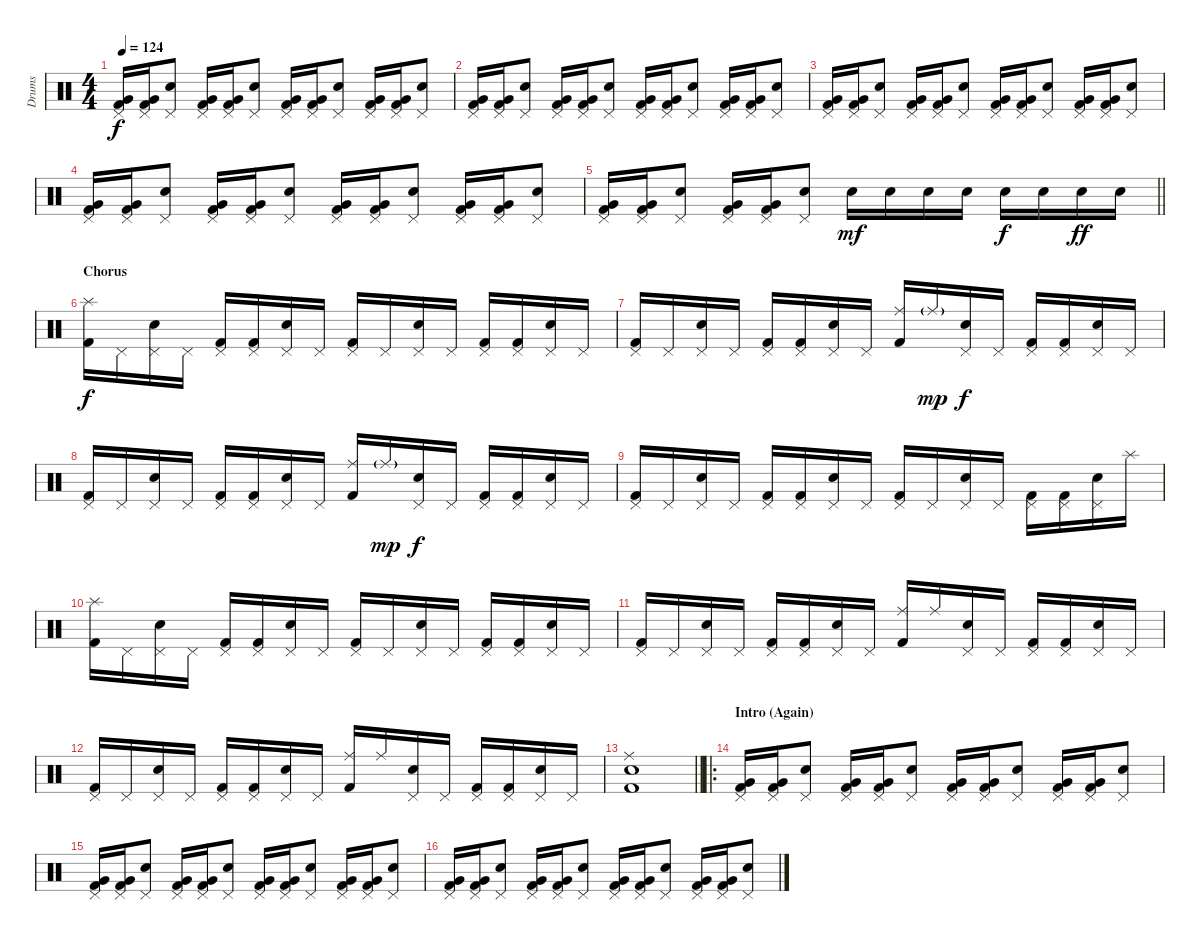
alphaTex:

\track ("Drums" "Drums") {instrument percussion}
\staff {score}
\articulation defaults
\ts (4 4)
\tempo 124
\clef neutral
\ks c
("Pedal Hi-Hat (hit)" "Very Low Tom (hit)" "Kick (hit) 2").16{dy f} ("Pedal Hi-Hat (hit)" "Very Low Tom (hit)" "Kick (hit) 2").16 ("Pedal Hi-Hat (hit)" "Electric Snare (hit)").8 ("Pedal Hi-Hat (hit)" "Very Low Tom (hit)" "Kick (hit) 2").16 ("Pedal Hi-Hat (hit)" "Very Low Tom (hit)" "Kick (hit) 2").16 ("Pedal Hi-Hat (hit)" "Electric Snare (hit)").8 ("Pedal Hi-Hat (hit)" "Very Low Tom (hit)" "Kick (hit) 2").16 ("Pedal Hi-Hat (hit)" "Very Low Tom (hit)" "Kick (hit) 2").16 ("Pedal Hi-Hat (hit)" "Electric Snare (hit)").8 ("Pedal Hi-Hat (hit)" "Very Low Tom (hit)" "Kick (hit) 2").16 ("Pedal Hi-Hat (hit)" "Very Low Tom (hit)" "Kick (hit) 2").16 ("Pedal Hi-Hat (hit)" "Electric Snare (hit)").8 |
("Pedal Hi-Hat (hit)" "Very Low Tom (hit)" "Kick (hit) 2").16 ("Pedal Hi-Hat (hit)" "Very Low Tom (hit)" "Kick (hit) 2").16 ("Pedal Hi-Hat (hit)" "Electric Snare (hit)").8 ("Pedal Hi-Hat (hit)" "Very Low Tom (hit)" "Kick (hit) 2").16 ("Pedal Hi-Hat (hit)" "Very Low Tom (hit)" "Kick (hit) 2").16 ("Pedal Hi-Hat (hit)" "Electric Snare (hit)").8 ("Pedal Hi-Hat (hit)" "Very Low Tom (hit)" "Kick (hit) 2").16 ("Pedal Hi-Hat (hit)" "Very Low Tom (hit)" "Kick (hit) 2").16 ("Pedal Hi-Hat (hit)" "Electric Snare (hit)").8 ("Pedal Hi-Hat (hit)" "Very Low Tom (hit)" "Kick (hit) 2").16 ("Pedal Hi-Hat (hit)" "Very Low Tom (hit)" "Kick (hit) 2").16 ("Pedal Hi-Hat (hit)" "Electric Snare (hit)").8 |
("Pedal Hi-Hat (hit)" "Very Low Tom (hit)" "Kick (hit) 2").16 ("Pedal Hi-Hat (hit)" "Very Low Tom (hit)" "Kick (hit) 2").16 ("Pedal Hi-Hat (hit)" "Electric Snare (hit)").8 ("Pedal Hi-Hat (hit)" "Very Low Tom (hit)" "Kick (hit) 2").16 ("Pedal Hi-Hat (hit)" "Very Low Tom (hit)" "Kick (hit) 2").16 ("Pedal Hi-Hat (hit)" "Electric Snare (hit)").8 ("Pedal Hi-Hat (hit)" "Very Low Tom (hit)" "Kick (hit) 2").16 ("Pedal Hi-Hat (hit)" "Very Low Tom (hit)" "Kick (hit) 2").16 ("Pedal Hi-Hat (hit)" "Electric Snare (hit)").8 ("Pedal Hi-Hat (hit)" "Very Low Tom (hit)" "Kick (hit) 2").16 ("Pedal Hi-Hat (hit)" "Very Low Tom (hit)" "Kick (hit) 2").16 ("Pedal Hi-Hat (hit)" "Electric Snare (hit)").8 |
("Pedal Hi-Hat (hit)" "Very Low Tom (hit)" "Kick (hit) 2").16 ("Pedal Hi-Hat (hit)" "Very Low Tom (hit)" "Kick (hit) 2").16 ("Pedal Hi-Hat (hit)" "Electric Snare (hit)").8 ("Pedal Hi-Hat (hit)" "Very Low Tom (hit)" "Kick (hit) 2").16 ("Pedal Hi-Hat (hit)" "Very Low Tom (hit)" "Kick (hit) 2").16 ("Pedal Hi-Hat (hit)" "Electric Snare (hit)").8 ("Pedal Hi-Hat (hit)" "Very Low Tom (hit)" "Kick (hit) 2").16 ("Pedal Hi-Hat (hit)" "Very Low Tom (hit)" "Kick (hit) 2").16 ("Pedal Hi-Hat (hit)" "Electric Snare (hit)").8 ("Pedal Hi-Hat (hit)" "Very Low Tom (hit)" "Kick (hit) 2").16 ("Pedal Hi-Hat (hit)" "Very Low Tom (hit)" "Kick (hit) 2").16 ("Pedal Hi-Hat (hit)" "Electric Snare (hit)").8 |
\barLineRight lightlight
("Pedal Hi-Hat (hit)" "Very Low Tom (hit)" "Kick (hit) 2").16 ("Pedal Hi-Hat (hit)" "Very Low Tom (hit)" "Kick (hit) 2").16 ("Pedal Hi-Hat (hit)" "Electric Snare (hit)").8 ("Pedal Hi-Hat (hit)" "Very Low Tom (hit)" "Kick (hit) 2").16 ("Pedal Hi-Hat (hit)" "Very Low Tom (hit)" "Kick (hit) 2").16 ("Pedal Hi-Hat (hit)" "Electric Snare (hit)").8 "Electric Snare (hit)".16{dy mf} "Electric Snare (hit)".16 "Electric Snare (hit)".16 "Electric Snare (hit)".16 "Electric Snare (hit)".16{dy f} "Electric Snare (hit)".16 "Electric Snare (hit)".16{dy ff} "Electric Snare (hit)".16 |
\section ("" "Chorus")
("Splash (hit)" "Kick (hit) 2").16{dy f} "Pedal Hi-Hat (hit)".16 ("Pedal Hi-Hat (hit)" "Electric Snare (hit)").16 "Pedal Hi-Hat (hit)".16 ("Pedal Hi-Hat (hit)" "Kick (hit) 2").16 ("Pedal Hi-Hat (hit)" "Kick (hit) 2").16 ("Pedal Hi-Hat (hit)" "Electric Snare (hit)").16 "Pedal Hi-Hat (hit)".16 ("Pedal Hi-Hat (hit)" "Kick (hit) 2").16 "Pedal Hi-Hat (hit)".16 ("Pedal Hi-Hat (hit)" "Electric Snare (hit)").16 "Pedal Hi-Hat (hit)".16 ("Pedal Hi-Hat (hit)" "Kick (hit) 2").16 ("Pedal Hi-Hat (hit)" "Kick (hit) 2").16 ("Pedal Hi-Hat (hit)" "Electric Snare (hit)").16 "Pedal Hi-Hat (hit)".16 |
("Pedal Hi-Hat (hit)" "Kick (hit) 2").16 "Pedal Hi-Hat (hit)".16 ("Pedal Hi-Hat (hit)" "Electric Snare (hit)").16 "Pedal Hi-Hat (hit)".16 ("Pedal Hi-Hat (hit)" "Kick (hit) 2").16 ("Pedal Hi-Hat (hit)" "Kick (hit) 2").16 ("Pedal Hi-Hat (hit)" "Electric Snare (hit)").16 "Pedal Hi-Hat (hit)".16 ("Ride (middle)" "Kick (hit) 2").16 "Ride (middle)"{g}.16{dy mp} ("Pedal Hi-Hat (hit)" "Electric Snare (hit)").16{dy f} "Pedal Hi-Hat (hit)".16 ("Pedal Hi-Hat (hit)" "Kick (hit) 2").16 ("Pedal Hi-Hat (hit)" "Kick (hit) 2").16 ("Pedal Hi-Hat (hit)" "Electric Snare (hit)").16 "Pedal Hi-Hat (hit)".16 |
("Pedal Hi-Hat (hit)" "Kick (hit) 2").16 "Pedal Hi-Hat (hit)".16 ("Pedal Hi-Hat (hit)" "Electric Snare (hit)").16 "Pedal Hi-Hat (hit)".16 ("Pedal Hi-Hat (hit)" "Kick (hit) 2").16 ("Pedal Hi-Hat (hit)" "Kick (hit) 2").16 ("Pedal Hi-Hat (hit)" "Electric Snare (hit)").16 "Pedal Hi-Hat (hit)".16 ("Ride (middle)" "Kick (hit) 2").16 "Ride (middle)"{g}.16{dy mp} ("Pedal Hi-Hat (hit)" "Electric Snare (hit)").16{dy f} "Pedal Hi-Hat (hit)".16 ("Pedal Hi-Hat (hit)" "Kick (hit) 2").16 ("Pedal Hi-Hat (hit)" "Kick (hit) 2").16 ("Pedal Hi-Hat (hit)" "Electric Snare (hit)").16 "Pedal Hi-Hat (hit)".16 |
("Pedal Hi-Hat (hit)" "Kick (hit) 2").16 "Pedal Hi-Hat (hit)".16 ("Pedal Hi-Hat (hit)" "Electric Snare (hit)").16 "Pedal Hi-Hat (hit)".16 ("Pedal Hi-Hat (hit)" "Kick (hit) 2").16 ("Pedal Hi-Hat (hit)" "Kick (hit) 2").16 ("Pedal Hi-Hat (hit)" "Electric Snare (hit)").16 "Pedal Hi-Hat (hit)".16 ("Pedal Hi-Hat (hit)" "Kick (hit) 2").16 "Pedal Hi-Hat (hit)".16 ("Pedal Hi-Hat (hit)" "Electric Snare (hit)").16 "Pedal Hi-Hat (hit)".16 ("Pedal Hi-Hat (hit)" "Kick (hit) 2").16 ("Pedal Hi-Hat (hit)" "Kick (hit) 2").16 ("Pedal Hi-Hat (hit)" "Electric Snare (hit)").16 "Splash (hit)".16 |
("Splash (hit)" "Kick (hit) 2").16 "Pedal Hi-Hat (hit)".16 ("Pedal Hi-Hat (hit)" "Electric Snare (hit)").16 "Pedal Hi-Hat (hit)".16 ("Pedal Hi-Hat (hit)" "Kick (hit) 2").16 ("Pedal Hi-Hat (hit)" "Kick (hit) 2").16 ("Pedal Hi-Hat (hit)" "Electric Snare (hit)").16 "Pedal Hi-Hat (hit)".16 ("Pedal Hi-Hat (hit)" "Kick (hit) 2").16 "Pedal Hi-Hat (hit)".16 ("Pedal Hi-Hat (hit)" "Electric Snare (hit)").16 "Pedal Hi-Hat (hit)".16 ("Pedal Hi-Hat (hit)" "Kick (hit) 2").16 ("Pedal Hi-Hat (hit)" "Kick (hit) 2").16 ("Pedal Hi-Hat (hit)" "Electric Snare (hit)").16 "Pedal Hi-Hat (hit)".16 |
("Pedal Hi-Hat (hit)" "Kick (hit) 2").16 "Pedal Hi-Hat (hit)".16 ("Pedal Hi-Hat (hit)" "Electric Snare (hit)").16 "Pedal Hi-Hat (hit)".16 ("Pedal Hi-Hat (hit)" "Kick (hit) 2").16 ("Pedal Hi-Hat (hit)" "Kick (hit) 2").16 ("Pedal Hi-Hat (hit)" "Electric Snare (hit)").16 "Pedal Hi-Hat (hit)".16 ("Ride (middle)" "Kick (hit) 2").16 "Ride (middle)".16 ("Pedal Hi-Hat (hit)" "Electric Snare (hit)").16 "Pedal Hi-Hat (hit)".16 ("Pedal Hi-Hat (hit)" "Kick (hit) 2").16 ("Pedal Hi-Hat (hit)" "Kick (hit) 2").16 ("Pedal Hi-Hat (hit)" "Electric Snare (hit)").16 "Pedal Hi-Hat (hit)".16 |
("Pedal Hi-Hat (hit)" "Kick (hit) 2").16 "Pedal Hi-Hat (hit)".16 ("Pedal Hi-Hat (hit)" "Electric Snare (hit)").16 "Pedal Hi-Hat (hit)".16 ("Pedal Hi-Hat (hit)" "Kick (hit) 2").16 ("Pedal Hi-Hat (hit)" "Kick (hit) 2").16 ("Pedal Hi-Hat (hit)" "Electric Snare (hit)").16 "Pedal Hi-Hat (hit)".16 ("Ride (middle)" "Kick (hit) 2").16 "Ride (middle)".16 ("Pedal Hi-Hat (hit)" "Electric Snare (hit)").16 "Pedal Hi-Hat (hit)".16 ("Pedal Hi-Hat (hit)" "Kick (hit) 2").16 ("Pedal Hi-Hat (hit)" "Kick (hit) 2").16 ("Pedal Hi-Hat (hit)" "Electric Snare (hit)").16 "Pedal Hi-Hat (hit)".16 |
\barLineRight lightlight
("Ride (middle)" "Electric Snare (hit)" "Kick (hit) 2").1 |
\ro
\section ("" "Intro (Again)")
("Pedal Hi-Hat (hit)" "Very Low Tom (hit)" "Kick (hit) 2").16 ("Pedal Hi-Hat (hit)" "Very Low Tom (hit)" "Kick (hit) 2").16 ("Pedal Hi-Hat (hit)" "Electric Snare (hit)").8 ("Pedal Hi-Hat (hit)" "Very Low Tom (hit)" "Kick (hit) 2").16 ("Pedal Hi-Hat (hit)" "Very Low Tom (hit)" "Kick (hit) 2").16 ("Pedal Hi-Hat (hit)" "Electric Snare (hit)").8 ("Pedal Hi-Hat (hit)" "Very Low Tom (hit)" "Kick (hit) 2").16 ("Pedal Hi-Hat (hit)" "Very Low Tom (hit)" "Kick (hit) 2").16 ("Pedal Hi-Hat (hit)" "Electric Snare (hit)").8 ("Pedal Hi-Hat (hit)" "Very Low Tom (hit)" "Kick (hit) 2").16 ("Pedal Hi-Hat (hit)" "Very Low Tom (hit)" "Kick (hit) 2").16 ("Pedal Hi-Hat (hit)" "Electric Snare (hit)").8 |
("Pedal Hi-Hat (hit)" "Very Low Tom (hit)" "Kick (hit) 2").16 ("Pedal Hi-Hat (hit)" "Very Low Tom (hit)" "Kick (hit) 2").16 ("Pedal Hi-Hat (hit)" "Electric Snare (hit)").8 ("Pedal Hi-Hat (hit)" "Very Low Tom (hit)" "Kick (hit) 2").16 ("Pedal Hi-Hat (hit)" "Very Low Tom (hit)" "Kick (hit) 2").16 ("Pedal Hi-Hat (hit)" "Electric Snare (hit)").8 ("Pedal Hi-Hat (hit)" "Very Low Tom (hit)" "Kick (hit) 2").16 ("Pedal Hi-Hat (hit)" "Very Low Tom (hit)" "Kick (hit) 2").16 ("Pedal Hi-Hat (hit)" "Electric Snare (hit)").8 ("Pedal Hi-Hat (hit)" "Very Low Tom (hit)" "Kick (hit) 2").16 ("Pedal Hi-Hat (hit)" "Very Low Tom (hit)" "Kick (hit) 2").16 ("Pedal Hi-Hat (hit)" "Electric Snare (hit)").8 |
("Pedal Hi-Hat (hit)" "Very Low Tom (hit)" "Kick (hit) 2").16 ("Pedal Hi-Hat (hit)" "Very Low Tom (hit)" "Kick (hit) 2").16 ("Pedal Hi-Hat (hit)" "Electric Snare (hit)").8 ("Pedal Hi-Hat (hit)" "Very Low Tom (hit)" "Kick (hit) 2").16 ("Pedal Hi-Hat (hit)" "Very Low Tom (hit)" "Kick (hit) 2").16 ("Pedal Hi-Hat (hit)" "Electric Snare (hit)").8 ("Pedal Hi-Hat (hit)" "Very Low Tom (hit)" "Kick (hit) 2").16 ("Pedal Hi-Hat (hit)" "Very Low Tom (hit)" "Kick (hit) 2").16 ("Pedal Hi-Hat (hit)" "Electric Snare (hit)").8 ("Pedal Hi-Hat (hit)" "Very Low Tom (hit)" "Kick (hit) 2").16 ("Pedal Hi-Hat (hit)" "Very Low Tom (hit)" "Kick (hit) 2").16 ("Pedal Hi-Hat (hit)" "Electric Snare (hit)").8
